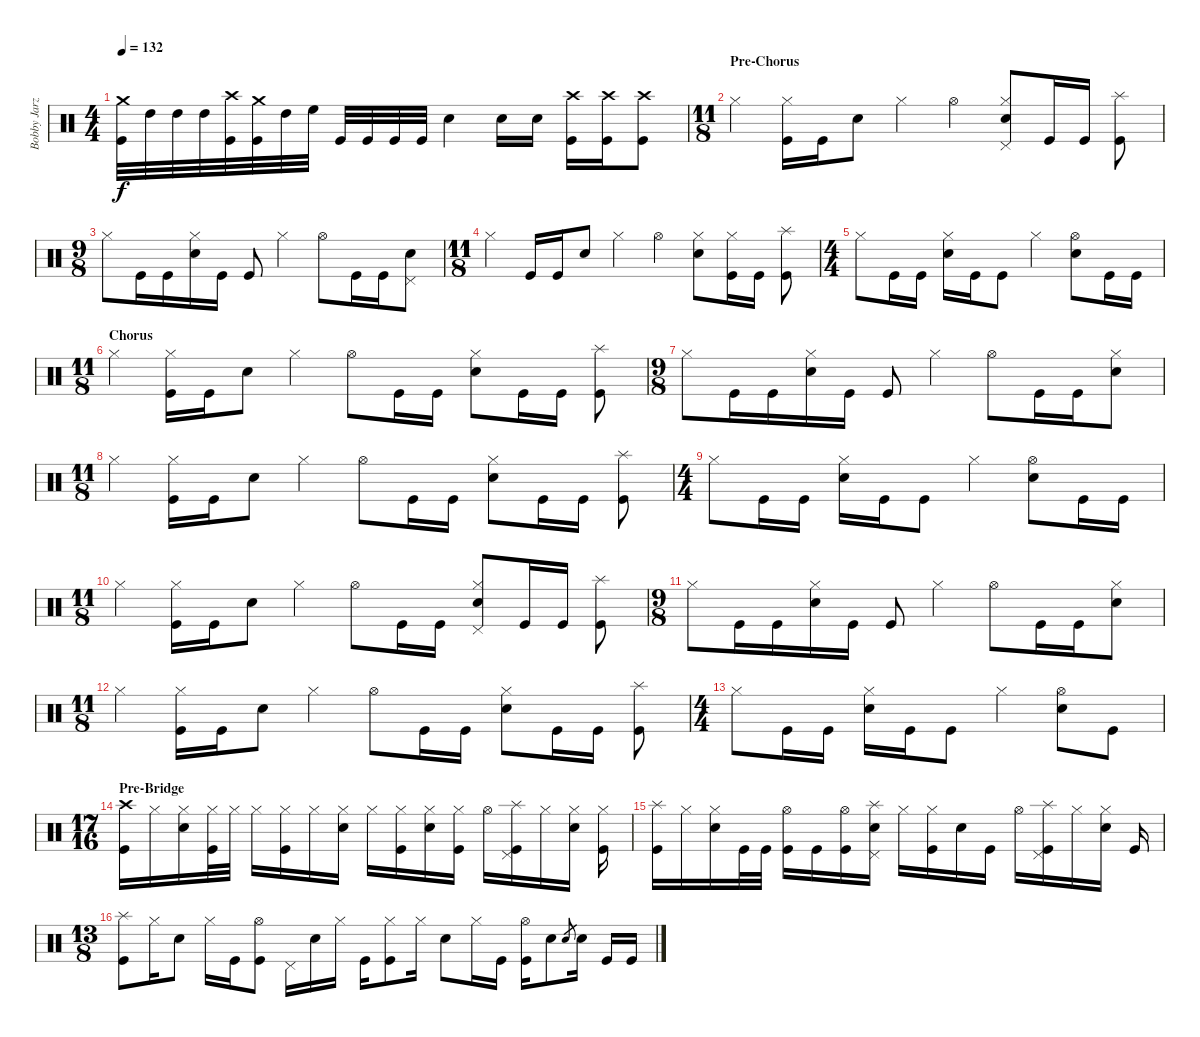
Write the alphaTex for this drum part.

\track ("Bobby Jarzombek" "Bobby Jarz") {instrument percussion}
\staff {score}
\articulation defaults
\ts (4 4)
\tempo 132
\clef neutral
\ks c
("Crash medium (hit)" "Kick (hit)").32{dy f} "High Tom (hit)".32 "High Tom (hit)".32 "High Tom (hit)".32 ("Crash high (hit)" "Kick (hit)").32 ("Crash medium (hit)" "Kick (hit)").32 "High Tom (hit)".32 "High Floor Tom (hit)".32 "Kick (hit)".32 "Kick (hit)".32 "Kick (hit)".32 "Kick (hit)".32 "Electric Snare (hit)".4 "Electric Snare (hit)".16 "Electric Snare (hit)".16 ("Crash high (hit)" "Kick (hit)").16 ("Crash high (hit)" "Kick (hit)").16 ("Crash high (hit)" "Kick (hit)").8 |
\ts (11 8)
\section ("" "Pre-Chorus")
"Hi-Hat (closed)".4 ("Hi-Hat (closed)" "Kick (hit)").16 "Kick (hit)".16 "Electric Snare (hit)".8 "Hi-Hat (closed)".4 "Hi-Hat (open)".4 ("Hi-Hat (closed)" "Electric Snare (hit)" "Pedal Hi-Hat (hit)").8 "Kick (hit)".16 "Kick (hit)".16 ("Splash (hit)" "Kick (hit)").8 |
\ts (9 8)
"Hi-Hat (closed)".8 "Kick (hit)".16 "Kick (hit)".16 ("Hi-Hat (closed)" "Electric Snare (hit)").16 "Kick (hit)".16 "Kick (hit)".8 "Hi-Hat (closed)".4 "Hi-Hat (open)".8 "Kick (hit)".16 "Kick (hit)".16 ("Electric Snare (hit)" "Pedal Hi-Hat (hit)").8 |
\ts (11 8)
"Hi-Hat (closed)".4 "Kick (hit)".16 "Kick (hit)".16 "Electric Snare (hit)".8 "Hi-Hat (closed)".4 "Hi-Hat (open)".4 ("Hi-Hat (closed)" "Electric Snare (hit)").8 ("Hi-Hat (closed)" "Kick (hit)").16 "Kick (hit)".16 ("Splash (hit)" "Kick (hit)").8 |
\ts (4 4)
"Hi-Hat (closed)".8 "Kick (hit)".16 "Kick (hit)".16 ("Hi-Hat (closed)" "Electric Snare (hit)").16 "Kick (hit)".16 "Kick (hit)".8 "Hi-Hat (closed)".4 ("Hi-Hat (open)" "Electric Snare (hit)").8 "Kick (hit)".16 "Kick (hit)".16 |
\ts (11 8)
\section ("" "Chorus")
"Hi-Hat (closed)".4 ("Hi-Hat (closed)" "Kick (hit)").16 "Kick (hit)".16 "Electric Snare (hit)".8 "Hi-Hat (closed)".4 "Hi-Hat (open)".8 "Kick (hit)".16 "Kick (hit)".16 ("Hi-Hat (closed)" "Electric Snare (hit)").8 "Kick (hit)".16 "Kick (hit)".16 ("Splash (hit)" "Kick (hit)").8 |
\ts (9 8)
"Hi-Hat (closed)".8 "Kick (hit)".16 "Kick (hit)".16 ("Hi-Hat (closed)" "Electric Snare (hit)").16 "Kick (hit)".16 "Kick (hit)".8 "Hi-Hat (closed)".4 "Hi-Hat (open)".8 "Kick (hit)".16 "Kick (hit)".16 ("Hi-Hat (closed)" "Electric Snare (hit)").8 |
\ts (11 8)
"Hi-Hat (closed)".4 ("Hi-Hat (closed)" "Kick (hit)").16 "Kick (hit)".16 "Electric Snare (hit)".8 "Hi-Hat (closed)".4 "Hi-Hat (open)".8 "Kick (hit)".16 "Kick (hit)".16 ("Hi-Hat (closed)" "Electric Snare (hit)").8 "Kick (hit)".16 "Kick (hit)".16 ("Splash (hit)" "Kick (hit)").8 |
\ts (4 4)
"Hi-Hat (closed)".8 "Kick (hit)".16 "Kick (hit)".16 ("Hi-Hat (closed)" "Electric Snare (hit)").16 "Kick (hit)".16 "Kick (hit)".8 "Hi-Hat (closed)".4 ("Hi-Hat (open)" "Electric Snare (hit)").8 "Kick (hit)".16 "Kick (hit)".16 |
\ts (11 8)
"Hi-Hat (closed)".4 ("Hi-Hat (closed)" "Kick (hit)").16 "Kick (hit)".16 "Electric Snare (hit)".8 "Hi-Hat (closed)".4 "Hi-Hat (open)".8 "Kick (hit)".16 "Kick (hit)".16 ("Hi-Hat (closed)" "Electric Snare (hit)" "Pedal Hi-Hat (hit)").8 "Kick (hit)".16 "Kick (hit)".16 ("Splash (hit)" "Kick (hit)").8 |
\ts (9 8)
"Hi-Hat (closed)".8 "Kick (hit)".16 "Kick (hit)".16 ("Hi-Hat (closed)" "Electric Snare (hit)").16 "Kick (hit)".16 "Kick (hit)".8 "Hi-Hat (closed)".4 "Hi-Hat (open)".8 "Kick (hit)".16 "Kick (hit)".16 ("Hi-Hat (closed)" "Electric Snare (hit)").8 |
\ts (11 8)
"Hi-Hat (closed)".4 ("Hi-Hat (closed)" "Kick (hit)").16 "Kick (hit)".16 "Electric Snare (hit)".8 "Hi-Hat (closed)".4 "Hi-Hat (open)".8 "Kick (hit)".16 "Kick (hit)".16 ("Hi-Hat (closed)" "Electric Snare (hit)").8 "Kick (hit)".16 "Kick (hit)".16 ("Splash (hit)" "Kick (hit)").8 |
\ts (4 4)
"Hi-Hat (closed)".8 "Kick (hit)".16 "Kick (hit)".16 ("Hi-Hat (closed)" "Electric Snare (hit)").16 "Kick (hit)".16 "Kick (hit)".8 "Hi-Hat (closed)".4 ("Hi-Hat (open)" "Electric Snare (hit)").8 "Kick (hit)".8 |
\ts (17 16)
\section ("" "Pre-Bridge")
("Crash high (hit)" "Kick (hit)").16 "Hi-Hat (closed)".16 ("Hi-Hat (closed)" "Electric Snare (hit)").16 ("Hi-Hat (closed)" "Kick (hit)").32 "Hi-Hat (closed)".32 "Hi-Hat (closed)".16 ("Hi-Hat (closed)" "Kick (hit)").16 "Hi-Hat (closed)".16 ("Hi-Hat (closed)" "Electric Snare (hit)").16 "Hi-Hat (closed)".16 ("Hi-Hat (closed)" "Kick (hit)").16 ("Hi-Hat (closed)" "Electric Snare (hit)").16 ("Hi-Hat (closed)" "Kick (hit)").16 "Hi-Hat (open)".16 ("Splash (hit)" "Pedal Hi-Hat (hit)" "Kick (hit)").16 "Hi-Hat (closed)".16 ("Hi-Hat (closed)" "Electric Snare (hit)").16 ("Hi-Hat (closed)" "Kick (hit)").16 |
("Splash (hit)" "Kick (hit)").16 "Hi-Hat (closed)".16 ("Hi-Hat (closed)" "Electric Snare (hit)").16 "Kick (hit)".32 "Kick (hit)".32 ("Hi-Hat (open)" "Kick (hit)").16 "Kick (hit)".16 ("Hi-Hat (open)" "Kick (hit)").16 ("Splash (hit)" "Electric Snare (hit)" "Pedal Hi-Hat (hit)").16 "Hi-Hat (closed)".16 ("Hi-Hat (closed)" "Kick (hit)").16 "Electric Snare (hit)".16 "Kick (hit)".16 "Hi-Hat (open)".16 ("Splash (hit)" "Pedal Hi-Hat (hit)" "Kick (hit)").16 "Hi-Hat (closed)".16 ("Hi-Hat (closed)" "Electric Snare (hit)").16 "Kick (hit)".16 |
\ts (13 8)
("Splash (hit)" "Kick (hit)").8 "Hi-Hat (closed)".16 "Electric Snare (hit)".8 "Hi-Hat (closed)".16 "Kick (hit)".16 ("Hi-Hat (open)" "Kick (hit)").8 "Pedal Hi-Hat (hit)".16 "Electric Snare (hit)".16 "Hi-Hat (closed)".16 "Kick (hit)".16 ("Hi-Hat (closed)" "Kick (hit)").8 "Hi-Hat (closed)".16 "Electric Snare (hit)".8 "Hi-Hat (closed)".16 "Kick (hit)".16 ("Hi-Hat (open)" "Kick (hit)").16 "Electric Snare (hit)".8 "Electric Snare (hit)".8{gr} "Electric Snare (hit)".16 "Kick (hit)".16 "Kick (hit)".16
